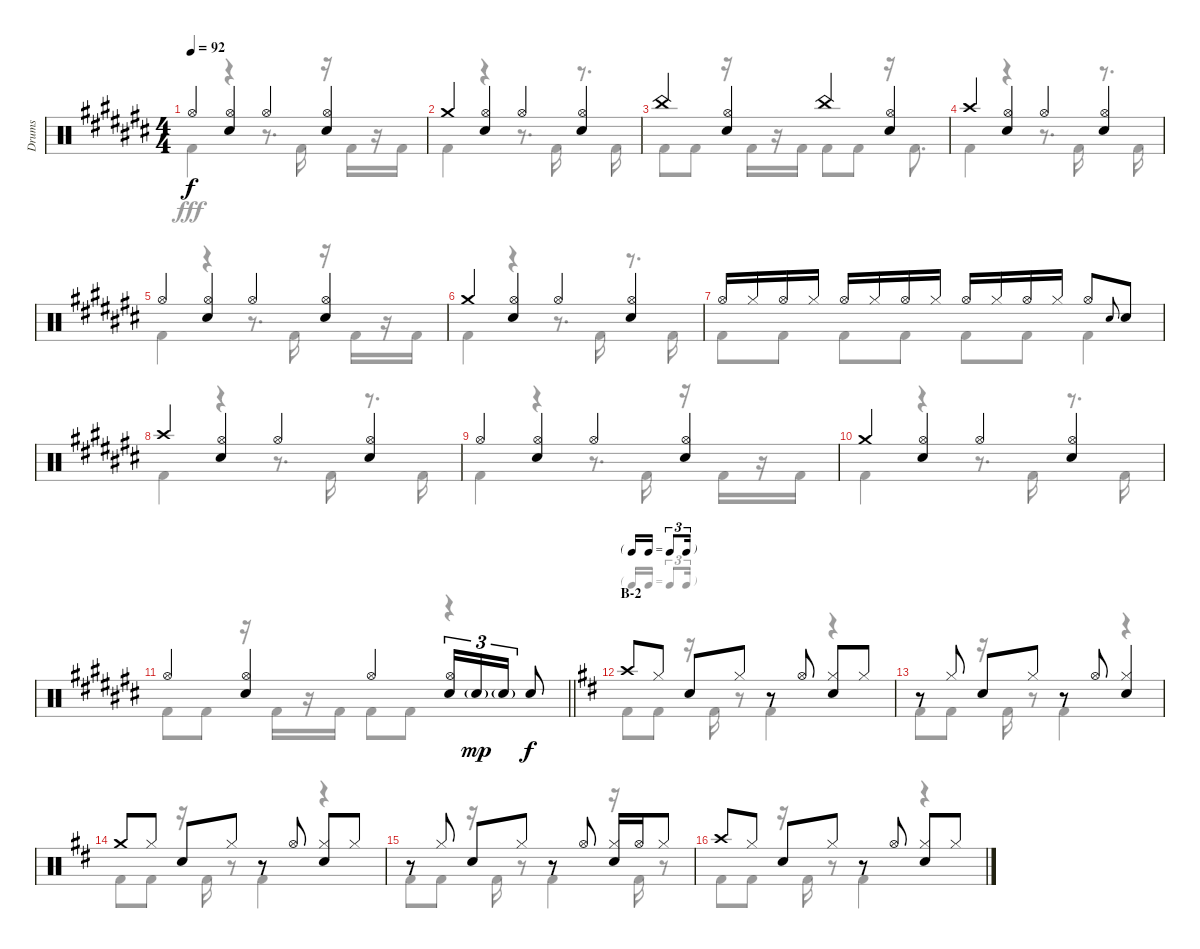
\track ("Drums" "Drums") {instrument percussion}
\staff {score}
\articulation defaults
\voice
\ts (4 4)
\tempo 92
\clef neutral
\ks c# "Hi-Hat (open)".4{dy f}
("Hi-Hat (open)" "Snare (hit) 2").4 "Hi-Hat (open)".4 ("Hi-Hat (open)" "Snare (hit) 2").4 |
"Crash medium (hit)".4 ("Hi-Hat (open)" "Snare (hit) 2").4 "Hi-Hat (open)".4 ("Hi-Hat (open)" "Snare (hit) 2").4 |
"China (hit)".4 ("Hi-Hat (open)" "Snare (hit) 2").4 "China (hit)".4 ("Hi-Hat (open)" "Snare (hit) 2").4 |
"Crash high (hit)".4 ("Hi-Hat (open)" "Snare (hit) 2").4 "Hi-Hat (open)".4 ("Hi-Hat (open)" "Snare (hit) 2").4 |
"Hi-Hat (open)".4 ("Hi-Hat (open)" "Snare (hit) 2").4 "Hi-Hat (open)".4 ("Hi-Hat (open)" "Snare (hit) 2").4 |
"Crash medium (hit)".4 ("Hi-Hat (open)" "Snare (hit) 2").4 "Hi-Hat (open)".4 ("Hi-Hat (open)" "Snare (hit) 2").4 |
"Hi-Hat (open)".16 "Hi-Hat (closed)".16 "Hi-Hat (open)".16 "Hi-Hat (closed)".16 "Hi-Hat (open)".16 "Hi-Hat (closed)".16 "Hi-Hat (open)".16 "Hi-Hat (closed)".16 "Hi-Hat (open)".16 "Hi-Hat (closed)".16 "Hi-Hat (open)".16 "Hi-Hat (closed)".16 "Hi-Hat (open)".8 "Snare (hit) 2".8{gr onbeat} "Snare (hit) 2".8 |
"Crash high (hit)".4 ("Hi-Hat (open)" "Snare (hit) 2").4 "Hi-Hat (open)".4 ("Hi-Hat (open)" "Snare (hit) 2").4 |
"Hi-Hat (open)".4 ("Hi-Hat (open)" "Snare (hit) 2").4 "Hi-Hat (open)".4 ("Hi-Hat (open)" "Snare (hit) 2").4 |
"Crash medium (hit)".4 ("Hi-Hat (open)" "Snare (hit) 2").4 "Hi-Hat (open)".4 ("Hi-Hat (open)" "Snare (hit) 2").4 |
\barLineRight lightlight "Hi-Hat (open)".4
("Hi-Hat (open)" "Snare (hit) 2").4 "Hi-Hat (open)".4 ("Hi-Hat (open)" "Snare (hit) 2").16{tu (3 2)} "Snare (hit) 2"{g}.16{tu (3 2) dy mp} "Snare (hit) 2"{g}.16{tu (3 2)} "Snare (hit) 2".8{dy f} |
\tf triplet16th
\section ("" "B-2")
\ks d "Crash high (hit)".8 "Hi-Hat (closed)".8 "Snare (hit) 2".8 "Hi-Hat (closed)".8
r.8 "Hi-Hat (open)".8 ("Hi-Hat (closed)" "Snare (hit) 2").8 "Hi-Hat (closed)".8 |
r.8 "Hi-Hat (closed)".8 "Snare (hit) 2".8 "Hi-Hat (closed)".8 r.8 "Hi-Hat (open)".8 ("Hi-Hat (closed)" "Snare (hit) 2").4 |
"Crash medium (hit)".8 "Hi-Hat (closed)".8 "Snare (hit) 2".8 "Hi-Hat (closed)".8 r.8 "Hi-Hat (open)".8 ("Hi-Hat (closed)" "Snare (hit) 2").8 "Hi-Hat (closed)".8 |
r.8 "Hi-Hat (closed)".8 "Snare (hit) 2".8 "Hi-Hat (closed)".8 r.8 "Hi-Hat (open)".8 ("Hi-Hat (closed)" "Snare (hit) 2").16 "Hi-Hat (open)".16 "Hi-Hat (closed)".8 |
"Crash high (hit)".8 "Hi-Hat (closed)".8 "Snare (hit) 2".8 "Hi-Hat (closed)".8 r.8 "Hi-Hat (open)".8 ("Hi-Hat (closed)" "Snare (hit) 2").8 "Hi-Hat (closed)".8
\voice
\clef neutral
\ottava regular
\simile none
\ks c# "Kick (hit) 2".4{dy fff}
r.4 r.8{d} "Kick (hit) 2".16 r.16 "Kick (hit) 2".16 r.16 "Kick (hit) 2".16 |
"Kick (hit) 2".4 r.4 r.8{d} "Kick (hit) 2".16 r.8{d} "Kick (hit) 2".16 |
"Kick (hit) 2".8 "Kick (hit) 2".8 r.16 "Kick (hit) 2".16 r.16 "Kick (hit) 2".16 "Kick (hit) 2".8 "Kick (hit) 2".8 r.16 "Kick (hit) 2".8{d} |
"Kick (hit) 2".4 r.4 r.8{d} "Kick (hit) 2".16 r.8{d} "Kick (hit) 2".16 |
"Kick (hit) 2".4 r.4 r.8{d} "Kick (hit) 2".16 r.16 "Kick (hit) 2".16 r.16 "Kick (hit) 2".16 |
"Kick (hit) 2".4 r.4 r.8{d} "Kick (hit) 2".16 r.8{d} "Kick (hit) 2".16 |
"Kick (hit) 2".8 "Kick (hit) 2".8 "Kick (hit) 2".8 "Kick (hit) 2".8 "Kick (hit) 2".8 "Kick (hit) 2".8 "Kick (hit) 2".4 |
"Kick (hit) 2".4 r.4 r.8{d} "Kick (hit) 2".16 r.8{d} "Kick (hit) 2".16 |
"Kick (hit) 2".4 r.4 r.8{d} "Kick (hit) 2".16 r.16 "Kick (hit) 2".16 r.16 "Kick (hit) 2".16 |
"Kick (hit) 2".4 r.4 r.8{d} "Kick (hit) 2".16 r.8{d} "Kick (hit) 2".16 |
\barLineRight lightlight "Kick (hit) 2".8 "Kick (hit) 2".8
r.16 "Kick (hit) 2".16 r.16 "Kick (hit) 2".16 "Kick (hit) 2".8 "Kick (hit) 2".8 r.4 |
\ks d "Kick (hit) 2".8 "Kick (hit) 2".8
r.16 "Kick (hit) 2".16 r.8 "Kick (hit) 2".4 r.4 |
"Kick (hit) 2".8 "Kick (hit) 2".8 r.16 "Kick (hit) 2".16 r.8 "Kick (hit) 2".4 r.4 |
"Kick (hit) 2".8 "Kick (hit) 2".8 r.16 "Kick (hit) 2".16 r.8 "Kick (hit) 2".4 r.4 |
"Kick (hit) 2".8 "Kick (hit) 2".8 r.16 "Kick (hit) 2".16 r.8 "Kick (hit) 2".4 r.16 "Kick (hit) 2".16 r.8 |
"Kick (hit) 2".8 "Kick (hit) 2".8 r.16 "Kick (hit) 2".16 r.8 "Kick (hit) 2".4 r.4
